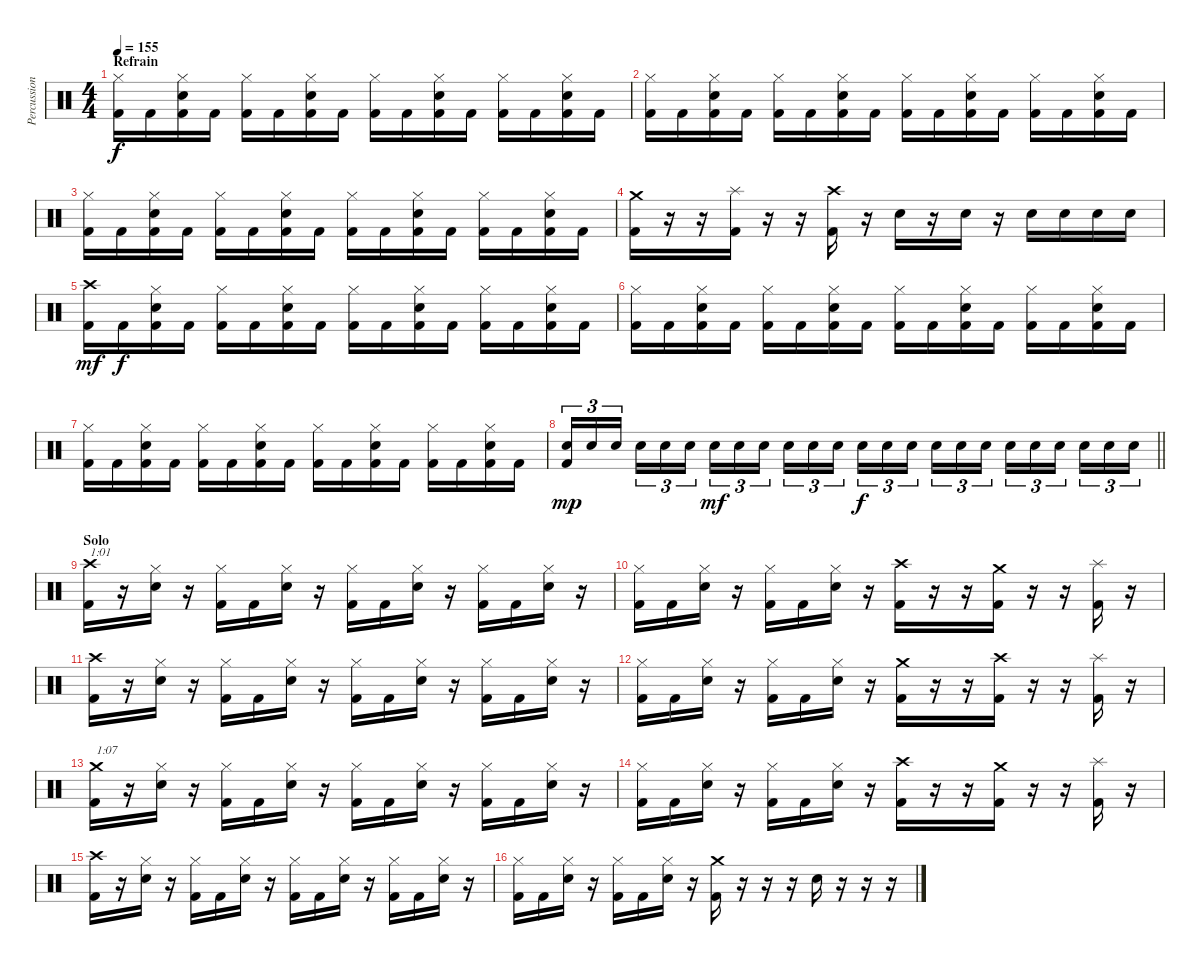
\track ("Percussion" "Percussion") {instrument percussion}
\staff {score}
\articulation defaults
\ts (4 4)
\section ("" "Refrain")
\tempo 155
\clef neutral
\ks c
("Hi-Hat (closed)" "Kick (hit) 2").16{dy f} "Kick (hit) 2".16 ("Hi-Hat (closed)" "Electric Snare (hit)" "Kick (hit) 2").16 "Kick (hit) 2".16 ("Hi-Hat (closed)" "Kick (hit) 2").16 "Kick (hit) 2".16 ("Hi-Hat (closed)" "Electric Snare (hit)" "Kick (hit) 2").16 "Kick (hit) 2".16 ("Hi-Hat (closed)" "Kick (hit) 2").16 "Kick (hit) 2".16 ("Hi-Hat (closed)" "Electric Snare (hit)" "Kick (hit) 2").16 "Kick (hit) 2".16 ("Hi-Hat (closed)" "Kick (hit) 2").16 "Kick (hit) 2".16 ("Hi-Hat (closed)" "Electric Snare (hit)" "Kick (hit) 2").16 "Kick (hit) 2".16 |
("Hi-Hat (closed)" "Kick (hit) 2").16 "Kick (hit) 2".16 ("Hi-Hat (closed)" "Electric Snare (hit)" "Kick (hit) 2").16 "Kick (hit) 2".16 ("Hi-Hat (closed)" "Kick (hit) 2").16 "Kick (hit) 2".16 ("Hi-Hat (closed)" "Electric Snare (hit)" "Kick (hit) 2").16 "Kick (hit) 2".16 ("Hi-Hat (closed)" "Kick (hit) 2").16 "Kick (hit) 2".16 ("Hi-Hat (closed)" "Electric Snare (hit)" "Kick (hit) 2").16 "Kick (hit) 2".16 ("Hi-Hat (closed)" "Kick (hit) 2").16 "Kick (hit) 2".16 ("Hi-Hat (closed)" "Electric Snare (hit)" "Kick (hit) 2").16 "Kick (hit) 2".16 |
("Hi-Hat (closed)" "Kick (hit) 2").16 "Kick (hit) 2".16 ("Hi-Hat (closed)" "Electric Snare (hit)" "Kick (hit) 2").16 "Kick (hit) 2".16 ("Hi-Hat (closed)" "Kick (hit) 2").16 "Kick (hit) 2".16 ("Hi-Hat (closed)" "Electric Snare (hit)" "Kick (hit) 2").16 "Kick (hit) 2".16 ("Hi-Hat (closed)" "Kick (hit) 2").16 "Kick (hit) 2".16 ("Hi-Hat (closed)" "Electric Snare (hit)" "Kick (hit) 2").16 "Kick (hit) 2".16 ("Hi-Hat (closed)" "Kick (hit) 2").16 "Kick (hit) 2".16 ("Hi-Hat (closed)" "Electric Snare (hit)" "Kick (hit) 2").16 "Kick (hit) 2".16 |
("Crash medium (hit)" "Kick (hit) 2").16 r.16 r.16 ("Splash (hit)" "Kick (hit) 2").16 r.16 r.16 ("Crash high (hit)" "Kick (hit) 2").16 r.16 "Electric Snare (hit)".16 r.16 "Electric Snare (hit)".16 r.16 "Electric Snare (hit)".16 "Electric Snare (hit)".16 "Electric Snare (hit)".16 "Electric Snare (hit)".16 |
("Crash high (hit)" "Kick (hit) 2").16{dy mf} "Kick (hit) 2".16{dy f} ("Hi-Hat (closed)" "Electric Snare (hit)" "Kick (hit) 2").16 "Kick (hit) 2".16 ("Hi-Hat (closed)" "Kick (hit) 2").16 "Kick (hit) 2".16 ("Hi-Hat (closed)" "Electric Snare (hit)" "Kick (hit) 2").16 "Kick (hit) 2".16 ("Hi-Hat (closed)" "Kick (hit) 2").16 "Kick (hit) 2".16 ("Hi-Hat (closed)" "Electric Snare (hit)" "Kick (hit) 2").16 "Kick (hit) 2".16 ("Hi-Hat (closed)" "Kick (hit) 2").16 "Kick (hit) 2".16 ("Hi-Hat (closed)" "Electric Snare (hit)" "Kick (hit) 2").16 "Kick (hit) 2".16 |
("Hi-Hat (closed)" "Kick (hit) 2").16 "Kick (hit) 2".16 ("Hi-Hat (closed)" "Electric Snare (hit)" "Kick (hit) 2").16 "Kick (hit) 2".16 ("Hi-Hat (closed)" "Kick (hit) 2").16 "Kick (hit) 2".16 ("Hi-Hat (closed)" "Electric Snare (hit)" "Kick (hit) 2").16 "Kick (hit) 2".16 ("Hi-Hat (closed)" "Kick (hit) 2").16 "Kick (hit) 2".16 ("Hi-Hat (closed)" "Electric Snare (hit)" "Kick (hit) 2").16 "Kick (hit) 2".16 ("Hi-Hat (closed)" "Kick (hit) 2").16 "Kick (hit) 2".16 ("Hi-Hat (closed)" "Electric Snare (hit)" "Kick (hit) 2").16 "Kick (hit) 2".16 |
("Hi-Hat (closed)" "Kick (hit) 2").16 "Kick (hit) 2".16 ("Hi-Hat (closed)" "Electric Snare (hit)" "Kick (hit) 2").16 "Kick (hit) 2".16 ("Hi-Hat (closed)" "Kick (hit) 2").16 "Kick (hit) 2".16 ("Hi-Hat (closed)" "Electric Snare (hit)" "Kick (hit) 2").16 "Kick (hit) 2".16 ("Hi-Hat (closed)" "Kick (hit) 2").16 "Kick (hit) 2".16 ("Hi-Hat (closed)" "Electric Snare (hit)" "Kick (hit) 2").16 "Kick (hit) 2".16 ("Hi-Hat (closed)" "Kick (hit) 2").16 "Kick (hit) 2".16 ("Hi-Hat (closed)" "Electric Snare (hit)" "Kick (hit) 2").16 "Kick (hit) 2".16 |
\barLineRight lightlight
("Electric Snare (hit)" "Kick (hit) 2").16{tu (3 2) dy mp} "Electric Snare (hit)".16{tu (3 2)} "Electric Snare (hit)".16{tu (3 2) beam splitsecondary} "Electric Snare (hit)".16{tu (3 2)} "Electric Snare (hit)".16{tu (3 2)} "Electric Snare (hit)".16{tu (3 2)} "Electric Snare (hit)".16{tu (3 2) dy mf} "Electric Snare (hit)".16{tu (3 2)} "Electric Snare (hit)".16{tu (3 2) beam splitsecondary} "Electric Snare (hit)".16{tu (3 2)} "Electric Snare (hit)".16{tu (3 2)} "Electric Snare (hit)".16{tu (3 2)} "Electric Snare (hit)".16{tu (3 2) dy f} "Electric Snare (hit)".16{tu (3 2)} "Electric Snare (hit)".16{tu (3 2) beam splitsecondary} "Electric Snare (hit)".16{tu (3 2)} "Electric Snare (hit)".16{tu (3 2)} "Electric Snare (hit)".16{tu (3 2)} "Electric Snare (hit)".16{tu (3 2)} "Electric Snare (hit)".16{tu (3 2)} "Electric Snare (hit)".16{tu (3 2) beam splitsecondary} "Electric Snare (hit)".16{tu (3 2)} "Electric Snare (hit)".16{tu (3 2)} "Electric Snare (hit)".16{tu (3 2)} |
\section ("" "Solo")
("Crash high (hit)" "Kick (hit) 2").16{txt "1:01"} r.16 ("Hi-Hat (closed)" "Electric Snare (hit)").16 r.16 ("Hi-Hat (closed)" "Kick (hit) 2").16 "Kick (hit) 2".16 ("Hi-Hat (closed)" "Electric Snare (hit)").16 r.16 ("Hi-Hat (closed)" "Kick (hit) 2").16 "Kick (hit) 2".16 ("Hi-Hat (closed)" "Electric Snare (hit)").16 r.16 ("Hi-Hat (closed)" "Kick (hit) 2").16 "Kick (hit) 2".16 ("Hi-Hat (closed)" "Electric Snare (hit)").16 r.16 |
("Hi-Hat (closed)" "Kick (hit) 2").16 "Kick (hit) 2".16 ("Hi-Hat (closed)" "Electric Snare (hit)").16 r.16 ("Hi-Hat (closed)" "Kick (hit) 2").16 "Kick (hit) 2".16 ("Hi-Hat (closed)" "Electric Snare (hit)").16 r.16 ("Crash high (hit)" "Kick (hit) 2").16 r.16 r.16 ("Crash medium (hit)" "Kick (hit) 2").16 r.16 r.16 ("Splash (hit)" "Kick (hit) 2").16 r.16 |
("Crash high (hit)" "Kick (hit) 2").16 r.16 ("Hi-Hat (closed)" "Electric Snare (hit)").16 r.16 ("Hi-Hat (closed)" "Kick (hit) 2").16 "Kick (hit) 2".16 ("Hi-Hat (closed)" "Electric Snare (hit)").16 r.16 ("Hi-Hat (closed)" "Kick (hit) 2").16 "Kick (hit) 2".16 ("Hi-Hat (closed)" "Electric Snare (hit)").16 r.16 ("Hi-Hat (closed)" "Kick (hit) 2").16 "Kick (hit) 2".16 ("Hi-Hat (closed)" "Electric Snare (hit)").16 r.16 |
("Hi-Hat (closed)" "Kick (hit) 2").16 "Kick (hit) 2".16 ("Hi-Hat (closed)" "Electric Snare (hit)").16 r.16 ("Hi-Hat (closed)" "Kick (hit) 2").16 "Kick (hit) 2".16 ("Hi-Hat (closed)" "Electric Snare (hit)").16 r.16 ("Crash medium (hit)" "Kick (hit) 2").16 r.16 r.16 ("Crash high (hit)" "Kick (hit) 2").16 r.16 r.16 ("Splash (hit)" "Kick (hit) 2").16 r.16 |
("Crash medium (hit)" "Kick (hit) 2").16{txt "1:07"} r.16 ("Hi-Hat (closed)" "Electric Snare (hit)").16 r.16 ("Hi-Hat (closed)" "Kick (hit) 2").16 "Kick (hit) 2".16 ("Hi-Hat (closed)" "Electric Snare (hit)").16 r.16 ("Hi-Hat (closed)" "Kick (hit) 2").16 "Kick (hit) 2".16 ("Hi-Hat (closed)" "Electric Snare (hit)").16 r.16 ("Hi-Hat (closed)" "Kick (hit) 2").16 "Kick (hit) 2".16 ("Hi-Hat (closed)" "Electric Snare (hit)").16 r.16 |
("Hi-Hat (closed)" "Kick (hit) 2").16 "Kick (hit) 2".16 ("Hi-Hat (closed)" "Electric Snare (hit)").16 r.16 ("Hi-Hat (closed)" "Kick (hit) 2").16 "Kick (hit) 2".16 ("Hi-Hat (closed)" "Electric Snare (hit)").16 r.16 ("Crash high (hit)" "Kick (hit) 2").16 r.16 r.16 ("Crash medium (hit)" "Kick (hit) 2").16 r.16 r.16 ("Splash (hit)" "Kick (hit) 2").16 r.16 |
("Crash high (hit)" "Kick (hit) 2").16 r.16 ("Hi-Hat (closed)" "Electric Snare (hit)").16 r.16 ("Hi-Hat (closed)" "Kick (hit) 2").16 "Kick (hit) 2".16 ("Hi-Hat (closed)" "Electric Snare (hit)").16 r.16 ("Hi-Hat (closed)" "Kick (hit) 2").16 "Kick (hit) 2".16 ("Hi-Hat (closed)" "Electric Snare (hit)").16 r.16 ("Hi-Hat (closed)" "Kick (hit) 2").16 "Kick (hit) 2".16 ("Hi-Hat (closed)" "Electric Snare (hit)").16 r.16 |
("Hi-Hat (closed)" "Kick (hit) 2").16 "Kick (hit) 2".16 ("Hi-Hat (closed)" "Electric Snare (hit)").16 r.16 ("Hi-Hat (closed)" "Kick (hit) 2").16 "Kick (hit) 2".16 ("Hi-Hat (closed)" "Electric Snare (hit)").16 r.16 ("Crash medium (hit)" "Kick (hit) 2").16 r.16 r.16 r.16 "Electric Snare (hit)".16 r.16 r.16 r.16
